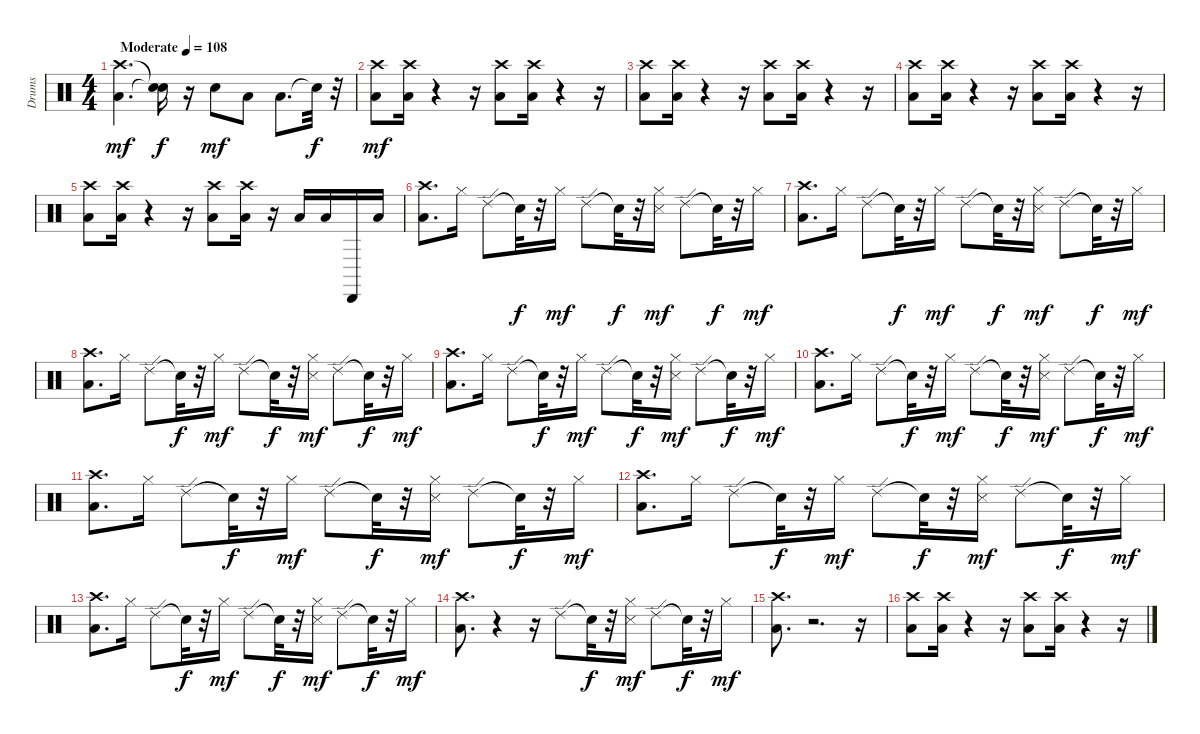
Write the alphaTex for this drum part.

\track ("Drums" "Drums") {instrument percussion}
\staff {score}
\articulation defaults
\ts (4 4)
\tempo (108 "Moderate")
\clef neutral
\ks c
("Crash high (hit)" "Low Floor Tom (hit)").4{d dy mf} ("Snare (hit)"{t} "Snare (hit)"{t}).16{dy f} r.16 "Snare (hit) 2".8{dy mf} "Low Tom (hit)".8 "Low Floor Tom (hit)".8{d} "Snare (hit)"{t}.32{dy f} r.32 |
("Crash high (hit)" "Low Floor Tom (hit)").8{dy mf} ("Crash high (hit)" "Low Floor Tom (hit)").16 r.4 r.16 ("Crash high (hit)" "Low Floor Tom (hit)").8 ("Crash high (hit)" "Low Floor Tom (hit)").16 r.4 r.16 |
("Crash high (hit)" "Low Floor Tom (hit)").8 ("Crash high (hit)" "Low Floor Tom (hit)").16 r.4 r.16 ("Crash high (hit)" "Low Floor Tom (hit)").8 ("Crash high (hit)" "Low Floor Tom (hit)").16 r.4 r.16 |
("Crash high (hit)" "Low Floor Tom (hit)").8 ("Crash high (hit)" "Low Floor Tom (hit)").16 r.4 r.16 ("Crash high (hit)" "Low Floor Tom (hit)").8 ("Crash high (hit)" "Low Floor Tom (hit)").16 r.4 r.16 |
("Crash high (hit)" "Low Floor Tom (hit)").8 ("Crash high (hit)" "Low Floor Tom (hit)").16 r.4 r.16 ("Crash high (hit)" "Low Floor Tom (hit)").8 ("Crash high (hit)" "Low Floor Tom (hit)").16 r.16 "Low Tom (hit)".16 "Low Tom (hit)".16 "Cabasa (hit)".16 "Low Floor Tom (hit)".16 |
("Crash high (hit)" "Low Floor Tom (hit)").8{d} "Hi-Hat (closed)".16 "Ride (edge) 2".8 "Snare (hit)"{t}.32{dy f} r.32 "Hi-Hat (closed)".16{dy mf} "Ride (edge) 2".8 "Snare (hit)"{t}.32{dy f} r.32 ("Metronome (hit)" "Hi-Hat (closed)").16{dy mf} "Ride (edge) 2".8 "Snare (hit)"{t}.32{dy f} r.32 "Hi-Hat (closed)".16{dy mf} |
("Crash high (hit)" "Low Floor Tom (hit)").8{d} "Hi-Hat (closed)".16 "Ride (edge) 2".8 "Snare (hit)"{t}.32{dy f} r.32 "Hi-Hat (closed)".16{dy mf} "Ride (edge) 2".8 "Snare (hit)"{t}.32{dy f} r.32 ("Metronome (hit)" "Hi-Hat (closed)").16{dy mf} "Ride (edge) 2".8 "Snare (hit)"{t}.32{dy f} r.32 "Hi-Hat (closed)".16{dy mf} |
("Crash high (hit)" "Low Floor Tom (hit)").8{d} "Hi-Hat (closed)".16 "Ride (edge) 2".8 "Snare (hit)"{t}.32{dy f} r.32 "Hi-Hat (closed)".16{dy mf} "Ride (edge) 2".8 "Snare (hit)"{t}.32{dy f} r.32 ("Metronome (hit)" "Hi-Hat (closed)").16{dy mf} "Ride (edge) 2".8 "Snare (hit)"{t}.32{dy f} r.32 "Hi-Hat (closed)".16{dy mf} |
("Crash high (hit)" "Low Floor Tom (hit)").8{d} "Hi-Hat (closed)".16 "Ride (edge) 2".8 "Snare (hit)"{t}.32{dy f} r.32 "Hi-Hat (closed)".16{dy mf} "Ride (edge) 2".8 "Snare (hit)"{t}.32{dy f} r.32 ("Metronome (hit)" "Hi-Hat (closed)").16{dy mf} "Ride (edge) 2".8 "Snare (hit)"{t}.32{dy f} r.32 "Hi-Hat (closed)".16{dy mf} |
("Crash high (hit)" "Low Floor Tom (hit)").8{d} "Hi-Hat (closed)".16 "Ride (edge) 2".8 "Snare (hit)"{t}.32{dy f} r.32 "Hi-Hat (closed)".16{dy mf} "Ride (edge) 2".8 "Snare (hit)"{t}.32{dy f} r.32 ("Metronome (hit)" "Hi-Hat (closed)").16{dy mf} "Ride (edge) 2".8 "Snare (hit)"{t}.32{dy f} r.32 "Hi-Hat (closed)".16{dy mf} |
("Crash high (hit)" "Low Floor Tom (hit)").8{d} "Hi-Hat (closed)".16 "Ride (edge) 2".8 "Snare (hit)"{t}.32{dy f} r.32 "Hi-Hat (closed)".16{dy mf} "Ride (edge) 2".8 "Snare (hit)"{t}.32{dy f} r.32 ("Metronome (hit)" "Hi-Hat (closed)").16{dy mf} "Ride (edge) 2".8 "Snare (hit)"{t}.32{dy f} r.32 "Hi-Hat (closed)".16{dy mf} |
("Crash high (hit)" "Low Floor Tom (hit)").8{d} "Hi-Hat (closed)".16 "Ride (edge) 2".8 "Snare (hit)"{t}.32{dy f} r.32 "Hi-Hat (closed)".16{dy mf} "Ride (edge) 2".8 "Snare (hit)"{t}.32{dy f} r.32 ("Metronome (hit)" "Hi-Hat (closed)").16{dy mf} "Ride (edge) 2".8 "Snare (hit)"{t}.32{dy f} r.32 "Hi-Hat (closed)".16{dy mf} |
("Crash high (hit)" "Low Floor Tom (hit)").8{d} "Hi-Hat (closed)".16 "Ride (edge) 2".8 "Snare (hit)"{t}.32{dy f} r.32 "Hi-Hat (closed)".16{dy mf} "Ride (edge) 2".8 "Snare (hit)"{t}.32{dy f} r.32 ("Metronome (hit)" "Hi-Hat (closed)").16{dy mf} "Ride (edge) 2".8 "Snare (hit)"{t}.32{dy f} r.32 "Hi-Hat (closed)".16{dy mf} |
("Crash high (hit)" "Low Floor Tom (hit)").8{d} r.4 r.16 "Ride (edge) 2".8 "Snare (hit)"{t}.32{dy f} r.32 ("Metronome (hit)" "Hi-Hat (closed)").16{dy mf} "Ride (edge) 2".8 "Snare (hit)"{t}.32{dy f} r.32 "Hi-Hat (closed)".16{dy mf} |
("Crash high (hit)" "Low Floor Tom (hit)").8{d} r.2{d} r.16 |
("Crash high (hit)" "Low Floor Tom (hit)").8 ("Crash high (hit)" "Low Floor Tom (hit)").16 r.4 r.16 ("Crash high (hit)" "Low Floor Tom (hit)").8 ("Crash high (hit)" "Low Floor Tom (hit)").16 r.4 r.16
